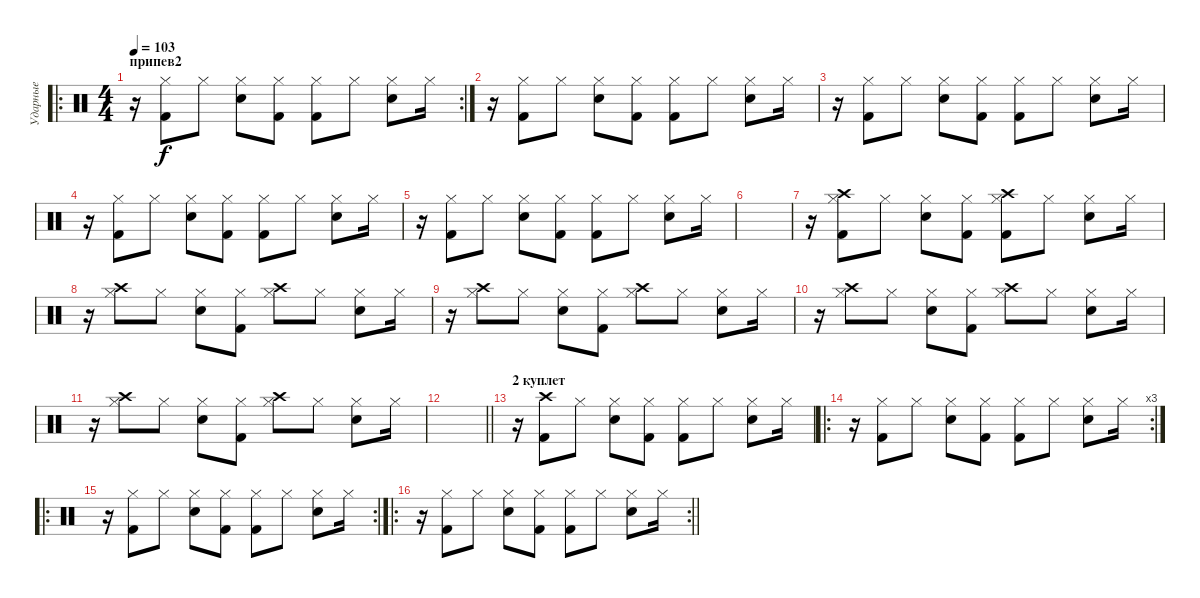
\track ("Ударные" "Ударные") {instrument percussion}
\staff {score}
\articulation defaults
\ro
\rc 2
\ts (4 4)
\section ("" "припев2")
\tempo 103
\clef neutral
\ks c
r.16{dy f} ("Hi-Hat (closed)" "Kick (hit) 2").8 "Hi-Hat (closed)".8 ("Hi-Hat (closed)" "Electric Snare (hit)").8 ("Hi-Hat (closed)" "Kick (hit) 2").8 ("Hi-Hat (closed)" "Kick (hit) 2").8 "Hi-Hat (closed)".8 ("Hi-Hat (closed)" "Electric Snare (hit)").8 "Hi-Hat (closed)".16 |
r.16 ("Hi-Hat (closed)" "Kick (hit) 2").8 "Hi-Hat (closed)".8 ("Hi-Hat (closed)" "Electric Snare (hit)").8 ("Hi-Hat (closed)" "Kick (hit) 2").8 ("Hi-Hat (closed)" "Kick (hit) 2").8 "Hi-Hat (closed)".8 ("Hi-Hat (closed)" "Electric Snare (hit)").8 "Hi-Hat (closed)".16 |
r.16 ("Hi-Hat (closed)" "Kick (hit) 2").8 "Hi-Hat (closed)".8 ("Hi-Hat (closed)" "Electric Snare (hit)").8 ("Hi-Hat (closed)" "Kick (hit) 2").8 ("Hi-Hat (closed)" "Kick (hit) 2").8 "Hi-Hat (closed)".8 ("Hi-Hat (closed)" "Electric Snare (hit)").8 "Hi-Hat (closed)".16 |
r.16 ("Hi-Hat (closed)" "Kick (hit) 2").8 "Hi-Hat (closed)".8 ("Hi-Hat (closed)" "Electric Snare (hit)").8 ("Hi-Hat (closed)" "Kick (hit) 2").8 ("Hi-Hat (closed)" "Kick (hit) 2").8 "Hi-Hat (closed)".8 ("Hi-Hat (closed)" "Electric Snare (hit)").8 "Hi-Hat (closed)".16 |
r.16 ("Hi-Hat (closed)" "Kick (hit) 2").8 "Hi-Hat (closed)".8 ("Hi-Hat (closed)" "Electric Snare (hit)").8 ("Hi-Hat (closed)" "Kick (hit) 2").8 ("Hi-Hat (closed)" "Kick (hit) 2").8 "Hi-Hat (closed)".8 ("Hi-Hat (closed)" "Electric Snare (hit)").8 "Hi-Hat (closed)".16 |
|
r.16 ("Hi-Hat (closed)" "Kick (hit) 2" "Crash high (hit)").8 "Hi-Hat (closed)".8 ("Hi-Hat (closed)" "Electric Snare (hit)").8 ("Hi-Hat (closed)" "Kick (hit) 2").8 ("Hi-Hat (closed)" "Kick (hit) 2" "Crash high (hit)").8 "Hi-Hat (closed)".8 ("Hi-Hat (closed)" "Electric Snare (hit)").8 "Hi-Hat (closed)".16 |
r.16 ("Hi-Hat (closed)" "Crash high (hit)").8 "Hi-Hat (closed)".8 ("Hi-Hat (closed)" "Electric Snare (hit)").8 ("Hi-Hat (closed)" "Kick (hit) 2").8 ("Hi-Hat (closed)" "Crash high (hit)").8 "Hi-Hat (closed)".8 ("Hi-Hat (closed)" "Electric Snare (hit)").8 "Hi-Hat (closed)".16 |
r.16 ("Hi-Hat (closed)" "Crash high (hit)").8 "Hi-Hat (closed)".8 ("Hi-Hat (closed)" "Electric Snare (hit)").8 ("Hi-Hat (closed)" "Kick (hit) 2").8 ("Hi-Hat (closed)" "Crash high (hit)").8 "Hi-Hat (closed)".8 ("Hi-Hat (closed)" "Electric Snare (hit)").8 "Hi-Hat (closed)".16 |
r.16 ("Hi-Hat (closed)" "Crash high (hit)").8 "Hi-Hat (closed)".8 ("Hi-Hat (closed)" "Electric Snare (hit)").8 ("Hi-Hat (closed)" "Kick (hit) 2").8 ("Hi-Hat (closed)" "Crash high (hit)").8 "Hi-Hat (closed)".8 ("Hi-Hat (closed)" "Electric Snare (hit)").8 "Hi-Hat (closed)".16 |
r.16 ("Hi-Hat (closed)" "Crash high (hit)").8 "Hi-Hat (closed)".8 ("Hi-Hat (closed)" "Electric Snare (hit)").8 ("Hi-Hat (closed)" "Kick (hit) 2").8 ("Hi-Hat (closed)" "Crash high (hit)").8 "Hi-Hat (closed)".8 ("Hi-Hat (closed)" "Electric Snare (hit)").8 "Hi-Hat (closed)".16 |
\barLineRight lightlight
|
\section ("" "2 куплет")
r.16 ("Kick (hit) 2" "Crash high (hit)").8 "Hi-Hat (closed)".8 ("Hi-Hat (closed)" "Electric Snare (hit)").8 ("Hi-Hat (closed)" "Kick (hit) 2").8 ("Hi-Hat (closed)" "Kick (hit) 2").8 "Hi-Hat (closed)".8 ("Hi-Hat (closed)" "Electric Snare (hit)").8 "Hi-Hat (closed)".16 |
\ro
\rc 3
r.16 ("Hi-Hat (closed)" "Kick (hit) 2").8 "Hi-Hat (closed)".8 ("Hi-Hat (closed)" "Electric Snare (hit)").8 ("Hi-Hat (closed)" "Kick (hit) 2").8 ("Hi-Hat (closed)" "Kick (hit) 2").8 "Hi-Hat (closed)".8 ("Hi-Hat (closed)" "Electric Snare (hit)").8 "Hi-Hat (closed)".16 |
\ro
\rc 2
r.16 ("Hi-Hat (closed)" "Kick (hit) 2").8 "Hi-Hat (closed)".8 ("Hi-Hat (closed)" "Electric Snare (hit)").8 ("Hi-Hat (closed)" "Kick (hit) 2").8 ("Hi-Hat (closed)" "Kick (hit) 2").8 "Hi-Hat (closed)".8 ("Hi-Hat (closed)" "Electric Snare (hit)").8 "Hi-Hat (closed)".16 |
\ro
\rc 2
\barLineRight lightlight
r.16 ("Hi-Hat (closed)" "Kick (hit) 2").8 "Hi-Hat (closed)".8 ("Hi-Hat (closed)" "Electric Snare (hit)").8 ("Hi-Hat (closed)" "Kick (hit) 2").8 ("Hi-Hat (closed)" "Kick (hit) 2").8 "Hi-Hat (closed)".8 ("Hi-Hat (closed)" "Electric Snare (hit)").8 "Hi-Hat (closed)".16
